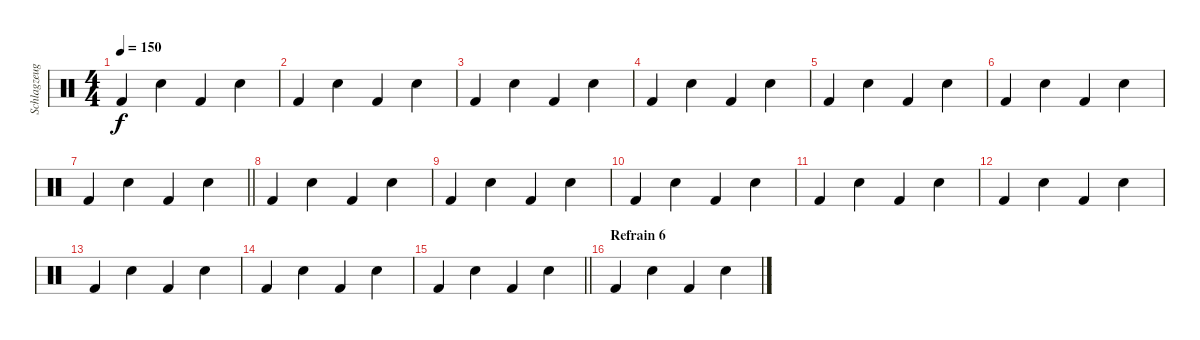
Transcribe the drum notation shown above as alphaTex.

\track ("Schlagzeug" "Schlagzeug") {instrument percussion}
\staff {score}
\articulation defaults
\ts (4 4)
\tempo 150
\clef neutral
\ks c "Kick (hit) 2".4{dy f} "Electric Snare (hit)".4 "Kick (hit) 2".4 "Electric Snare (hit)".4
|
"Kick (hit) 2".4 "Electric Snare (hit)".4 "Kick (hit) 2".4 "Electric Snare (hit)".4 |
"Kick (hit) 2".4 "Electric Snare (hit)".4 "Kick (hit) 2".4 "Electric Snare (hit)".4 |
"Kick (hit) 2".4 "Electric Snare (hit)".4 "Kick (hit) 2".4 "Electric Snare (hit)".4 |
"Kick (hit) 2".4 "Electric Snare (hit)".4 "Kick (hit) 2".4 "Electric Snare (hit)".4 |
"Kick (hit) 2".4 "Electric Snare (hit)".4 "Kick (hit) 2".4 "Electric Snare (hit)".4 |
\barLineRight lightlight "Kick (hit) 2".4 "Electric Snare (hit)".4 "Kick (hit) 2".4 "Electric Snare (hit)".4
|
"Kick (hit) 2".4 "Electric Snare (hit)".4 "Kick (hit) 2".4 "Electric Snare (hit)".4 |
"Kick (hit) 2".4 "Electric Snare (hit)".4 "Kick (hit) 2".4 "Electric Snare (hit)".4 |
"Kick (hit) 2".4 "Electric Snare (hit)".4 "Kick (hit) 2".4 "Electric Snare (hit)".4 |
"Kick (hit) 2".4 "Electric Snare (hit)".4 "Kick (hit) 2".4 "Electric Snare (hit)".4 |
"Kick (hit) 2".4 "Electric Snare (hit)".4 "Kick (hit) 2".4 "Electric Snare (hit)".4 |
"Kick (hit) 2".4 "Electric Snare (hit)".4 "Kick (hit) 2".4 "Electric Snare (hit)".4 |
"Kick (hit) 2".4 "Electric Snare (hit)".4 "Kick (hit) 2".4 "Electric Snare (hit)".4 |
\barLineRight lightlight "Kick (hit) 2".4 "Electric Snare (hit)".4 "Kick (hit) 2".4 "Electric Snare (hit)".4
|
\section ("" "Refrain 6")
"Kick (hit) 2".4 "Electric Snare (hit)".4 "Kick (hit) 2".4 "Electric Snare (hit)".4
